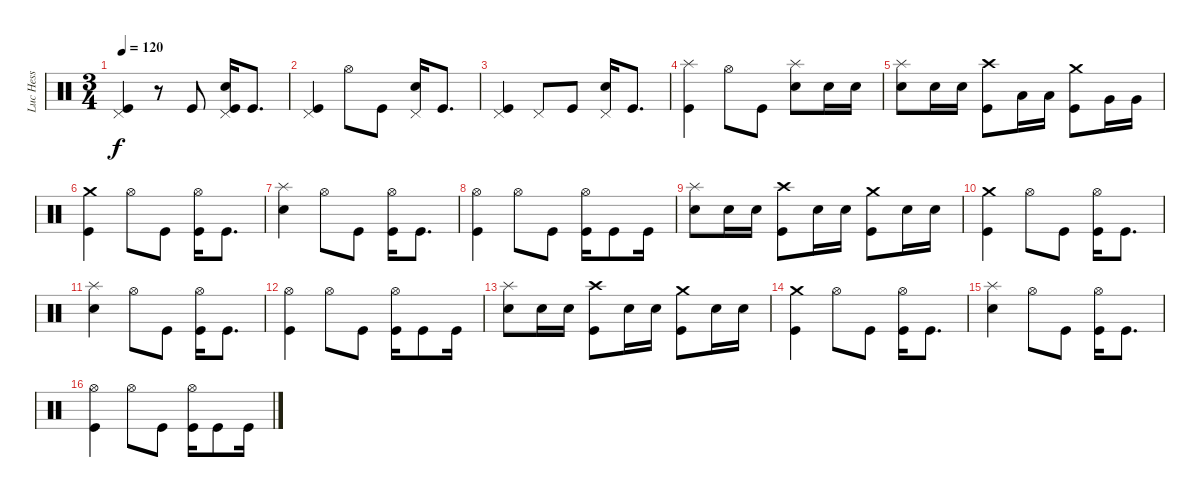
\track ("Luc Hess" "Luc Hess") {instrument percussion}
\staff {score}
\articulation defaults
\ts (3 4)
\tempo 120
\clef neutral
\ks c
("Pedal Hi-Hat (hit)" "Kick (hit)").4{dy f} r.8 "Kick (hit)".8 ("Snare (hit) 2" "Pedal Hi-Hat (hit)" "Kick (hit)").16 "Kick (hit)".8{d} |
("Pedal Hi-Hat (hit)" "Kick (hit)").4 "Hi-Hat (open)".8 "Kick (hit)".8 ("Snare (hit) 2" "Pedal Hi-Hat (hit)").16 "Kick (hit)".8{d} |
("Pedal Hi-Hat (hit)" "Kick (hit)").4 "Pedal Hi-Hat (hit)".8 "Kick (hit)".8 ("Snare (hit) 2" "Pedal Hi-Hat (hit)").16 "Kick (hit)".8{d} |
("Splash (hit)" "Kick (hit)").4 "Hi-Hat (open)".8 "Kick (hit)".8 ("Snare (hit) 2" "Splash (hit)").8 "Snare (hit) 2".16 "Snare (hit) 2".16 |
("Snare (hit) 2" "Splash (hit)").8 "Snare (hit) 2".16 "Snare (hit) 2".16 ("Crash high (hit)" "Kick (hit)").8 "Low Tom (hit)".16 "Low Tom (hit)".16 ("Crash medium (hit)" "Kick (hit)").8 "Very Low Tom (hit)".16 "Very Low Tom (hit)".16 |
("Crash medium (hit)" "Kick (hit)").4 "Hi-Hat (open)".8 "Kick (hit)".8 ("Hi-Hat (open)" "Kick (hit)").16 "Kick (hit)".8{d} |
("Snare (hit) 2" "Splash (hit)").4 "Hi-Hat (open)".8 "Kick (hit)".8 ("Hi-Hat (open)" "Kick (hit)").16 "Kick (hit)".8{d} |
("Hi-Hat (open)" "Kick (hit)").4 "Hi-Hat (open)".8 "Kick (hit)".8 ("Hi-Hat (open)" "Kick (hit)").16 "Kick (hit)".8 "Kick (hit)".16 |
("Snare (hit) 2" "Splash (hit)").8 "Snare (hit) 2".16 "Snare (hit) 2".16 ("Crash high (hit)" "Kick (hit)").8 "Snare (hit) 2".16 "Snare (hit) 2".16 ("Crash medium (hit)" "Kick (hit)").8 "Snare (hit) 2".16 "Snare (hit) 2".16 |
("Crash medium (hit)" "Kick (hit)").4 "Hi-Hat (open)".8 "Kick (hit)".8 ("Hi-Hat (open)" "Kick (hit)").16 "Kick (hit)".8{d} |
("Snare (hit) 2" "Splash (hit)").4 "Hi-Hat (open)".8 "Kick (hit)".8 ("Hi-Hat (open)" "Kick (hit)").16 "Kick (hit)".8{d} |
("Hi-Hat (open)" "Kick (hit)").4 "Hi-Hat (open)".8 "Kick (hit)".8 ("Hi-Hat (open)" "Kick (hit)").16 "Kick (hit)".8 "Kick (hit)".16 |
("Snare (hit) 2" "Splash (hit)").8 "Snare (hit) 2".16 "Snare (hit) 2".16 ("Crash high (hit)" "Kick (hit)").8 "Snare (hit) 2".16 "Snare (hit) 2".16 ("Crash medium (hit)" "Kick (hit)").8 "Snare (hit) 2".16 "Snare (hit) 2".16 |
("Crash medium (hit)" "Kick (hit)").4 "Hi-Hat (open)".8 "Kick (hit)".8 ("Hi-Hat (open)" "Kick (hit)").16 "Kick (hit)".8{d} |
("Snare (hit) 2" "Splash (hit)").4 "Hi-Hat (open)".8 "Kick (hit)".8 ("Hi-Hat (open)" "Kick (hit)").16 "Kick (hit)".8{d} |
("Hi-Hat (open)" "Kick (hit)").4 "Hi-Hat (open)".8 "Kick (hit)".8 ("Hi-Hat (open)" "Kick (hit)").16 "Kick (hit)".8 "Kick (hit)".16
